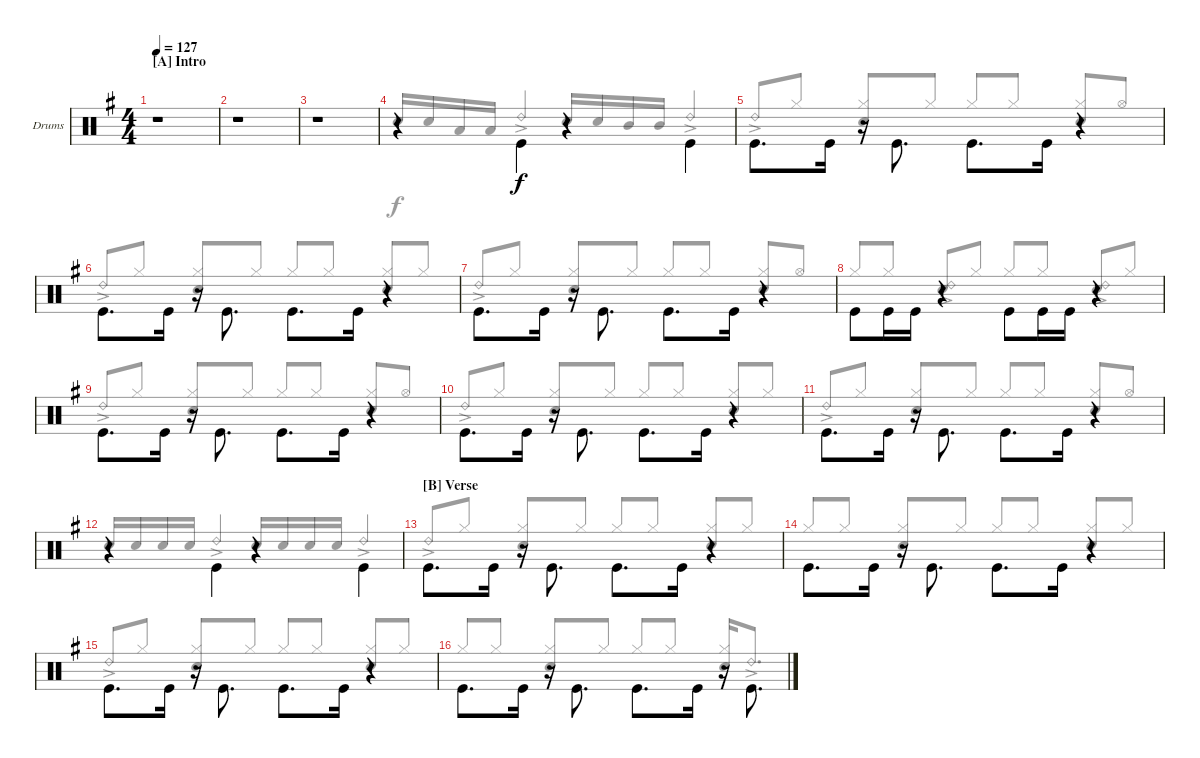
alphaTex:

\defaultSystemsLayout 4
\bracketExtendMode groupsimilarinstruments
\firstSystemTrackNameOrientation horizontal
\otherSystemsTrackNameOrientation horizontal
\track ("Drums" "Drums") {instrument percussion}
\staff {score}
\articulation defaults
\voice
\ts (4 4)
\beaming (8 2 2 2 2)
\section ("A" "Intro")
\tempo 127
\clef neutral
\scale
1.05675
\ks g
r.1{dy f} |
\scale
0.943253 r.1 |
\scale
1.02648 r.1 |
\scale
0.973518 r.4 "Kick (hit)".4{beam invert} r.4 "Kick (hit)".4{beam invert} |
\scale
1.02648 "Kick (hit)".8{d beam invert} "Kick (hit)".16 r.16{beam invert} "Kick (hit)".8{d beam invert} "Kick (hit)".8{d beam invert} "Kick (hit)".16 r.4{beam invert} |
\scale
0.973518 "Kick (hit)".8{d beam invert} "Kick (hit)".16 r.16{beam invert} "Kick (hit)".8{d beam invert} "Kick (hit)".8{d beam invert} "Kick (hit)".16 r.4{beam invert} |
\scale
1.02648 "Kick (hit)".8{d beam invert} "Kick (hit)".16 r.16{beam invert} "Kick (hit)".8{d beam invert} "Kick (hit)".8{d beam invert} "Kick (hit)".16 r.4{beam invert} |
\scale
0.973518 "Kick (hit)".8{beam invert} "Kick (hit)".16 "Kick (hit)".16 r.4{beam invert} "Kick (hit)".8{beam invert} "Kick (hit)".16 "Kick (hit)".16 r.4{beam invert} |
\scale
1.02648 "Kick (hit)".8{d beam invert} "Kick (hit)".16 r.16{beam invert} "Kick (hit)".8{d beam invert} "Kick (hit)".8{d beam invert} "Kick (hit)".16 r.4{beam invert} |
\scale
0.973518 "Kick (hit)".8{d beam invert} "Kick (hit)".16 r.16{beam invert} "Kick (hit)".8{d beam invert} "Kick (hit)".8{d beam invert} "Kick (hit)".16 r.4{beam invert} |
\scale
1.02648 "Kick (hit)".8{d beam invert} "Kick (hit)".16 r.16{beam invert} "Kick (hit)".8{d beam invert} "Kick (hit)".8{d beam invert} "Kick (hit)".16 r.4{beam invert} |
\scale
0.973518 r.4 "Kick (hit)".4{beam invert} r.4 "Kick (hit)".4{beam invert} |
\section ("B" "Verse")
\scale
1.02648 "Kick (hit)".8{d beam invert} "Kick (hit)".16 r.16{beam invert} "Kick (hit)".8{d beam invert} "Kick (hit)".8{d beam invert} "Kick (hit)".16 r.4 |
\scale
0.973518 "Kick (hit)".8{d beam invert} "Kick (hit)".16 r.16{beam invert} "Kick (hit)".8{d beam invert} "Kick (hit)".8{d beam invert} "Kick (hit)".16 r.4 |
\scale
1.02648 "Kick (hit)".8{d beam invert} "Kick (hit)".16 r.16{beam invert} "Kick (hit)".8{d beam invert} "Kick (hit)".8{d beam invert} "Kick (hit)".16 r.4 |
\scale
0.973518 "Kick (hit)".8{d beam invert} "Kick (hit)".16 r.16{beam invert} "Kick (hit)".8{d beam invert} "Kick (hit)".8{d beam invert} "Kick (hit)".16 r.16{beam invert} "Kick (hit)".8{d beam invert}
\voice
\clef neutral
\ottava regular
\simile none
\scale
1.05675
\ks g
|
\scale
0.943253 |
\scale
1.02648 |
\scale
0.973518 "Snare (hit) 2".16{beam invert} "Snare (hit) 2".16 "Low Tom (hit)".16 "Low Tom (hit)".16 "Ride (bell) 2"{ac}.4{beam invert} "Snare (hit) 2".16{beam invert} "Snare (hit) 2".16 "Mid Tom (hit)".16 "Mid Tom (hit)".16 "Ride (bell) 2"{ac}.4{beam invert} |
\scale
1.02648 "Ride (bell) 2"{ac}.8{beam invert} "Hi-Hat (closed)".8 ("Hi-Hat (closed)" "Snare (hit) 2").8{beam invert} "Hi-Hat (closed)".8 "Hi-Hat (closed)".8{beam invert} "Hi-Hat (closed)".8 ("Hi-Hat (closed)" "Snare (hit) 2").8{beam invert} "Hi-Hat (open)".8 |
\scale
0.973518 "Ride (bell) 2"{ac}.8{beam invert} "Hi-Hat (closed)".8 ("Hi-Hat (closed)" "Snare (hit) 2").8{beam invert} "Hi-Hat (closed)".8 "Hi-Hat (closed)".8{beam invert} "Hi-Hat (closed)".8 ("Hi-Hat (closed)" "Snare (hit) 2").8{beam invert} "Hi-Hat (closed)".8 |
\scale
1.02648 "Ride (bell) 2"{ac}.8{beam invert} "Hi-Hat (closed)".8 ("Hi-Hat (closed)" "Snare (hit) 2").8{beam invert} "Hi-Hat (closed)".8 "Hi-Hat (closed)".8{beam invert} "Hi-Hat (closed)".8 ("Hi-Hat (closed)" "Snare (hit) 2").8{beam invert} "Hi-Hat (open)".8 |
\scale
0.973518 "Hi-Hat (closed)".8{beam invert} "Hi-Hat (closed)".8 ("Snare (hit) 2" "Ride (bell) 2"{ac}).8{beam invert} "Hi-Hat (closed)".8 "Hi-Hat (closed)".8{beam invert} "Hi-Hat (closed)".8 ("Snare (hit) 2" "Ride (bell) 2"{ac}).8{beam invert} "Hi-Hat (closed)".8 |
\scale
1.02648 "Ride (bell) 2"{ac}.8{beam invert} "Hi-Hat (closed)".8 ("Hi-Hat (closed)" "Snare (hit) 2").8{beam invert} "Hi-Hat (closed)".8 "Hi-Hat (closed)".8{beam invert} "Hi-Hat (closed)".8 ("Hi-Hat (closed)" "Snare (hit) 2").8{beam invert} "Hi-Hat (open)".8 |
\scale
0.973518 "Ride (bell) 2"{ac}.8{beam invert} "Hi-Hat (closed)".8 ("Hi-Hat (closed)" "Snare (hit) 2").8{beam invert} "Hi-Hat (closed)".8 "Hi-Hat (closed)".8{beam invert} "Hi-Hat (closed)".8 ("Hi-Hat (closed)" "Snare (hit) 2").8{beam invert} "Hi-Hat (closed)".8 |
\scale
1.02648 "Ride (bell) 2"{ac}.8{beam invert} "Hi-Hat (closed)".8 ("Hi-Hat (closed)" "Snare (hit) 2").8{beam invert} "Hi-Hat (closed)".8 "Hi-Hat (closed)".8{beam invert} "Hi-Hat (closed)".8 ("Hi-Hat (closed)" "Snare (hit) 2").8{beam invert} "Hi-Hat (open)".8 |
\scale
0.973518 "Snare (hit) 2".16{beam invert} "Snare (hit) 2".16 "Snare (hit) 2".16 "Snare (hit) 2".16 "Ride (bell) 2"{ac}.4{beam invert} "Snare (hit) 2".16{beam invert} "Snare (hit) 2".16 "Snare (hit) 2".16 "Snare (hit) 2".16 "Ride (bell) 2"{ac}.4{beam invert} |
\scale
1.02648 "Ride (bell) 2"{ac}.8{beam invert} "Hi-Hat (closed)".8 ("Hi-Hat (closed)" "Snare (hit) 2").8{beam invert} "Hi-Hat (closed)".8 "Hi-Hat (closed)".8{beam invert} "Hi-Hat (closed)".8 ("Hi-Hat (closed)" "Snare (hit) 2").8{beam invert} "Hi-Hat (closed)".8 |
\scale
0.973518 "Hi-Hat (closed)".8{beam invert} "Hi-Hat (closed)".8 ("Hi-Hat (closed)" "Snare (hit) 2").8{beam invert} "Hi-Hat (closed)".8 "Hi-Hat (closed)".8{beam invert} "Hi-Hat (closed)".8 ("Hi-Hat (closed)" "Snare (hit) 2").8{beam invert} "Hi-Hat (closed)".8 |
\scale
1.02648 "Ride (bell) 2"{ac}.8{beam invert} "Hi-Hat (closed)".8 ("Hi-Hat (closed)" "Snare (hit) 2").8{beam invert} "Hi-Hat (closed)".8 "Hi-Hat (closed)".8{beam invert} "Hi-Hat (closed)".8 ("Hi-Hat (closed)" "Snare (hit) 2").8{beam invert} "Hi-Hat (closed)".8 |
\scale
0.973518 "Hi-Hat (closed)".8{beam invert} "Hi-Hat (closed)".8 ("Hi-Hat (closed)" "Snare (hit) 2").8{beam invert} "Hi-Hat (closed)".8 "Hi-Hat (closed)".8{beam invert} "Hi-Hat (closed)".8 ("Hi-Hat (closed)" "Snare (hit) 2").16{beam invert} "Ride (bell) 2"{ac}.8{d}
